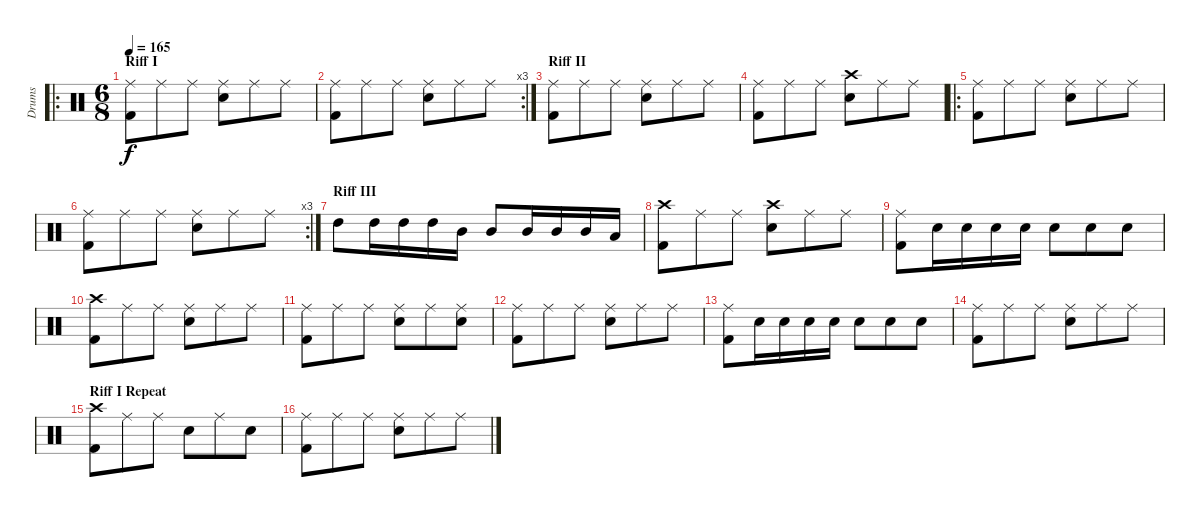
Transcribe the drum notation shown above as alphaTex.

\track ("Drums" "Drums") {instrument percussion}
\staff {score}
\articulation defaults
\ro
\ts (6 8)
\section ("" "Riff I")
\tempo 165
\clef neutral
\ks c
("Ride (middle)" "Kick (hit) 2").8{dy f} "Ride (middle)".8 "Ride (middle)".8 ("Ride (middle)" "Electric Snare (hit)").8 "Ride (middle)".8 "Ride (middle)".8 |
\rc 3
("Ride (middle)" "Kick (hit) 2").8 "Ride (middle)".8 "Ride (middle)".8 ("Ride (middle)" "Electric Snare (hit)").8 "Ride (middle)".8 "Ride (middle)".8 |
\section ("" "Riff II")
("Ride (middle)" "Kick (hit) 2").8 "Ride (middle)".8 "Ride (middle)".8 ("Ride (middle)" "Electric Snare (hit)").8 "Ride (middle)".8 "Ride (middle)".8 |
("Ride (middle)" "Kick (hit) 2").8 "Ride (middle)".8 "Ride (middle)".8 ("Crash high (hit)" "Electric Snare (hit)").8 "Ride (middle)".8 "Ride (middle)".8 |
\ro
("Ride (middle)" "Kick (hit) 2").8 "Ride (middle)".8 "Ride (middle)".8 ("Ride (middle)" "Electric Snare (hit)").8 "Ride (middle)".8 "Ride (middle)".8 |
\rc 3
("Ride (middle)" "Kick (hit) 2").8 "Ride (middle)".8 "Ride (middle)".8 ("Ride (middle)" "Electric Snare (hit)").8 "Ride (middle)".8 "Ride (middle)".8 |
\section ("" "Riff III")
"High Tom (hit)".8 "High Tom (hit)".16 "High Tom (hit)".16 "High Tom (hit)".16 "Mid Tom (hit)".16 "Mid Tom (hit)".8 "Mid Tom (hit)".16 "Mid Tom (hit)".16 "Mid Tom (hit)".16 "Low Tom (hit)".16 |
("Crash high (hit)" "Kick (hit) 2").8 "Ride (middle)".8 "Ride (middle)".8 ("Crash high (hit)" "Electric Snare (hit)").8 "Ride (middle)".8 "Ride (middle)".8 |
("Ride (middle)" "Kick (hit) 2").8 "Electric Snare (hit)".16 "Electric Snare (hit)".16 "Electric Snare (hit)".16 "Electric Snare (hit)".16 "Electric Snare (hit)".8 "Electric Snare (hit)".8 "Electric Snare (hit)".8 |
("Crash high (hit)" "Kick (hit) 2").8 "Ride (middle)".8 "Ride (middle)".8 ("Ride (middle)" "Electric Snare (hit)").8 "Ride (middle)".8 "Ride (middle)".8 |
("Ride (middle)" "Kick (hit) 2").8 "Ride (middle)".8 "Ride (middle)".8 ("Ride (middle)" "Electric Snare (hit)").8 "Ride (middle)".8 ("Ride (middle)" "Electric Snare (hit)").8 |
("Ride (middle)" "Kick (hit) 2").8 "Ride (middle)".8 "Ride (middle)".8 ("Ride (middle)" "Electric Snare (hit)").8 "Ride (middle)".8 "Ride (middle)".8 |
("Ride (middle)" "Kick (hit) 2").8 "Electric Snare (hit)".16 "Electric Snare (hit)".16 "Electric Snare (hit)".16 "Electric Snare (hit)".16 "Electric Snare (hit)".8 "Electric Snare (hit)".8 "Electric Snare (hit)".8 |
("Ride (middle)" "Kick (hit) 2").8 "Ride (middle)".8 "Ride (middle)".8 ("Ride (middle)" "Electric Snare (hit)").8 "Ride (middle)".8 "Ride (middle)".8 |
\section ("" "Riff I Repeat")
("Crash high (hit)" "Kick (hit) 2").8 "Ride (middle)".8 "Ride (middle)".8 "Electric Snare (hit)".8 "Ride (middle)".8 "Electric Snare (hit)".8 |
("Ride (middle)" "Kick (hit) 2").8 "Ride (middle)".8 "Ride (middle)".8 ("Ride (middle)" "Electric Snare (hit)").8 "Ride (middle)".8 "Ride (middle)".8
